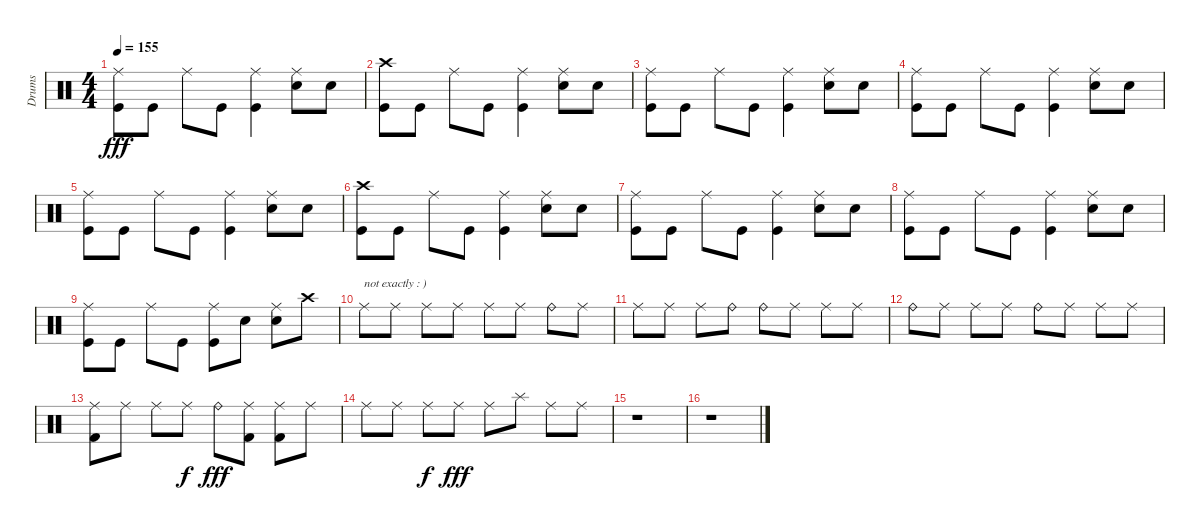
\track ("Drums               " "Drums     ") {instrument percussion}
\staff {score}
\articulation defaults
\ts (4 4)
\tempo 155
\clef neutral
\ks c
("Kick (hit)" "Ride (middle)").8{dy fff} "Kick (hit)".8 "Ride (middle)".8 "Kick (hit)".8 ("Kick (hit)" "Ride (middle)").4 ("Snare (hit) 2" "Ride (middle)").8 "Snare (hit) 2".8 |
("Kick (hit)" "Crash high (hit)").8 "Kick (hit)".8 "Ride (middle)".8 "Kick (hit)".8 ("Kick (hit)" "Ride (middle)").4 ("Snare (hit) 2" "Ride (middle)").8 "Snare (hit) 2".8 |
("Kick (hit)" "Ride (middle)").8 "Kick (hit)".8 "Ride (middle)".8 "Kick (hit)".8 ("Kick (hit)" "Ride (middle)").4 ("Snare (hit) 2" "Ride (middle)").8 "Snare (hit) 2".8 |
("Kick (hit)" "Ride (middle)").8 "Kick (hit)".8 "Ride (middle)".8 "Kick (hit)".8 ("Kick (hit)" "Ride (middle)").4 ("Snare (hit) 2" "Ride (middle)").8 "Snare (hit) 2".8 |
("Kick (hit)" "Ride (middle)").8 "Kick (hit)".8 "Ride (middle)".8 "Kick (hit)".8 ("Kick (hit)" "Ride (middle)").4 ("Snare (hit) 2" "Ride (middle)").8 "Snare (hit) 2".8 |
("Kick (hit)" "Crash high (hit)").8 "Kick (hit)".8 "Ride (middle)".8 "Kick (hit)".8 ("Kick (hit)" "Ride (middle)").4 ("Snare (hit) 2" "Ride (middle)").8 "Snare (hit) 2".8 |
("Kick (hit)" "Ride (middle)").8 "Kick (hit)".8 "Ride (middle)".8 "Kick (hit)".8 ("Kick (hit)" "Ride (middle)").4 ("Snare (hit) 2" "Ride (middle)").8 "Snare (hit) 2".8 |
("Kick (hit)" "Ride (middle)").8 "Kick (hit)".8 "Ride (middle)".8 "Kick (hit)".8 ("Kick (hit)" "Ride (middle)").4 ("Snare (hit) 2" "Ride (middle)").8 "Snare (hit) 2".8 |
("Ride (middle)" "Kick (hit)").8 "Kick (hit)".8 "Ride (middle)".8 "Kick (hit)".8 ("Ride (middle)" "Kick (hit)").8 "Snare (hit) 2".8 ("Ride (middle)" "Snare (hit) 2").8 "Crash high (hit)".8 |
"Ride (middle)".8{txt "not exactly : )"} "Ride (middle)".8 "Ride (middle)".8 "Ride (middle)".8 "Ride (middle)".8 "Ride (middle)".8 "Ride (bell)".8 "Ride (middle)".8 |
"Ride (middle)".8 "Ride (middle)".8 "Ride (middle)".8 "Ride (bell)".8 "Ride (bell)".8 "Ride (middle)".8 "Ride (middle)".8 "Ride (middle)".8 |
"Ride (bell)".8 "Ride (middle)".8 "Ride (middle)".8 "Ride (middle)".8 "Ride (bell)".8 "Ride (middle)".8 "Ride (middle)".8 "Ride (middle)".8 |
("Ride (middle)" "Kick (hit) 2").8 "Ride (middle)".8 "Ride (middle)".8 "Ride (middle)".8{dy f} "Ride (bell)".8{dy fff} ("Ride (middle)" "Kick (hit) 2").8 ("Ride (middle)" "Kick (hit) 2").8 "Ride (middle)".8 |
"Ride (middle)".8{volume 2} "Ride (middle)".8 "Ride (middle)".8{dy f} "Ride (middle)".8{dy fff} "Ride (middle)".8 "Splash (hit)".8 "Ride (middle)".8 "Ride (middle)".8 |
r.1 |
r.1
